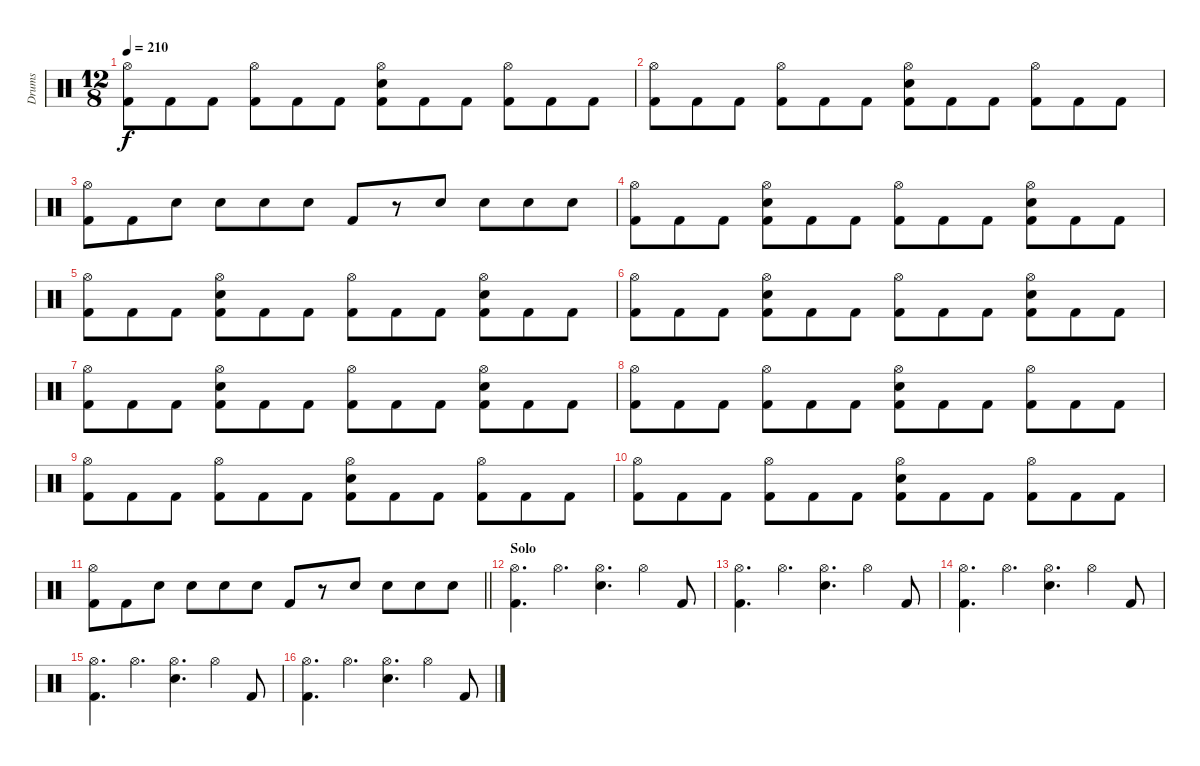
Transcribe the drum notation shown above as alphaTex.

\track ("Drums" "Drums") {instrument percussion}
\staff {score}
\articulation defaults
\ts (12 8)
\tempo 210
\clef neutral
\ks c
("Hi-Hat (open)" "Kick (hit) 2").8{dy f} "Kick (hit) 2".8 "Kick (hit) 2".8 ("Hi-Hat (open)" "Kick (hit) 2").8 "Kick (hit) 2".8 "Kick (hit) 2".8 ("Hi-Hat (open)" "Electric Snare (hit)" "Kick (hit) 2").8 "Kick (hit) 2".8 "Kick (hit) 2".8 ("Hi-Hat (open)" "Kick (hit) 2").8 "Kick (hit) 2".8 "Kick (hit) 2".8 |
("Hi-Hat (open)" "Kick (hit) 2").8 "Kick (hit) 2".8 "Kick (hit) 2".8 ("Hi-Hat (open)" "Kick (hit) 2").8 "Kick (hit) 2".8 "Kick (hit) 2".8 ("Hi-Hat (open)" "Electric Snare (hit)" "Kick (hit) 2").8 "Kick (hit) 2".8 "Kick (hit) 2".8 ("Hi-Hat (open)" "Kick (hit) 2").8 "Kick (hit) 2".8 "Kick (hit) 2".8 |
("Hi-Hat (open)" "Kick (hit) 2").8 "Kick (hit) 2".8 "Electric Snare (hit)".8 "Electric Snare (hit)".8 "Electric Snare (hit)".8 "Electric Snare (hit)".8 "Kick (hit) 2".8 r.8 "Electric Snare (hit)".8 "Electric Snare (hit)".8 "Electric Snare (hit)".8 "Electric Snare (hit)".8 |
("Hi-Hat (open)" "Kick (hit) 2").8 "Kick (hit) 2".8 "Kick (hit) 2".8 ("Hi-Hat (open)" "Electric Snare (hit)" "Kick (hit) 2").8 "Kick (hit) 2".8 "Kick (hit) 2".8 ("Hi-Hat (open)" "Kick (hit) 2").8 "Kick (hit) 2".8 "Kick (hit) 2".8 ("Hi-Hat (open)" "Electric Snare (hit)" "Kick (hit) 2").8 "Kick (hit) 2".8 "Kick (hit) 2".8 |
("Hi-Hat (open)" "Kick (hit) 2").8 "Kick (hit) 2".8 "Kick (hit) 2".8 ("Hi-Hat (open)" "Electric Snare (hit)" "Kick (hit) 2").8 "Kick (hit) 2".8 "Kick (hit) 2".8 ("Hi-Hat (open)" "Kick (hit) 2").8 "Kick (hit) 2".8 "Kick (hit) 2".8 ("Hi-Hat (open)" "Electric Snare (hit)" "Kick (hit) 2").8 "Kick (hit) 2".8 "Kick (hit) 2".8 |
("Hi-Hat (open)" "Kick (hit) 2").8 "Kick (hit) 2".8 "Kick (hit) 2".8 ("Hi-Hat (open)" "Electric Snare (hit)" "Kick (hit) 2").8 "Kick (hit) 2".8 "Kick (hit) 2".8 ("Hi-Hat (open)" "Kick (hit) 2").8 "Kick (hit) 2".8 "Kick (hit) 2".8 ("Hi-Hat (open)" "Electric Snare (hit)" "Kick (hit) 2").8 "Kick (hit) 2".8 "Kick (hit) 2".8 |
("Hi-Hat (open)" "Kick (hit) 2").8 "Kick (hit) 2".8 "Kick (hit) 2".8 ("Hi-Hat (open)" "Electric Snare (hit)" "Kick (hit) 2").8 "Kick (hit) 2".8 "Kick (hit) 2".8 ("Hi-Hat (open)" "Kick (hit) 2").8 "Kick (hit) 2".8 "Kick (hit) 2".8 ("Hi-Hat (open)" "Electric Snare (hit)" "Kick (hit) 2").8 "Kick (hit) 2".8 "Kick (hit) 2".8 |
("Hi-Hat (open)" "Kick (hit) 2").8 "Kick (hit) 2".8 "Kick (hit) 2".8 ("Hi-Hat (open)" "Kick (hit) 2").8 "Kick (hit) 2".8 "Kick (hit) 2".8 ("Hi-Hat (open)" "Electric Snare (hit)" "Kick (hit) 2").8 "Kick (hit) 2".8 "Kick (hit) 2".8 ("Hi-Hat (open)" "Kick (hit) 2").8 "Kick (hit) 2".8 "Kick (hit) 2".8 |
("Hi-Hat (open)" "Kick (hit) 2").8 "Kick (hit) 2".8 "Kick (hit) 2".8 ("Hi-Hat (open)" "Kick (hit) 2").8 "Kick (hit) 2".8 "Kick (hit) 2".8 ("Hi-Hat (open)" "Electric Snare (hit)" "Kick (hit) 2").8 "Kick (hit) 2".8 "Kick (hit) 2".8 ("Hi-Hat (open)" "Kick (hit) 2").8 "Kick (hit) 2".8 "Kick (hit) 2".8 |
("Hi-Hat (open)" "Kick (hit) 2").8 "Kick (hit) 2".8 "Kick (hit) 2".8 ("Hi-Hat (open)" "Kick (hit) 2").8 "Kick (hit) 2".8 "Kick (hit) 2".8 ("Hi-Hat (open)" "Electric Snare (hit)" "Kick (hit) 2").8 "Kick (hit) 2".8 "Kick (hit) 2".8 ("Hi-Hat (open)" "Kick (hit) 2").8 "Kick (hit) 2".8 "Kick (hit) 2".8 |
\barLineRight lightlight
("Hi-Hat (open)" "Kick (hit) 2").8 "Kick (hit) 2".8 "Electric Snare (hit)".8 "Electric Snare (hit)".8 "Electric Snare (hit)".8 "Electric Snare (hit)".8 "Kick (hit) 2".8 r.8 "Electric Snare (hit)".8 "Electric Snare (hit)".8 "Electric Snare (hit)".8 "Electric Snare (hit)".8 |
\section ("" "Solo")
("Hi-Hat (open)" "Kick (hit) 2").4{d} "Hi-Hat (open)".4{d} ("Hi-Hat (open)" "Electric Snare (hit)").4{d} "Hi-Hat (open)".4 "Kick (hit) 2".8 |
("Hi-Hat (open)" "Kick (hit) 2").4{d} "Hi-Hat (open)".4{d} ("Hi-Hat (open)" "Electric Snare (hit)").4{d} "Hi-Hat (open)".4 "Kick (hit) 2".8 |
("Hi-Hat (open)" "Kick (hit) 2").4{d} "Hi-Hat (open)".4{d} ("Hi-Hat (open)" "Electric Snare (hit)").4{d} "Hi-Hat (open)".4 "Kick (hit) 2".8 |
("Hi-Hat (open)" "Kick (hit) 2").4{d} "Hi-Hat (open)".4{d} ("Hi-Hat (open)" "Electric Snare (hit)").4{d} "Hi-Hat (open)".4 "Kick (hit) 2".8 |
("Hi-Hat (open)" "Kick (hit) 2").4{d} "Hi-Hat (open)".4{d} ("Hi-Hat (open)" "Electric Snare (hit)").4{d} "Hi-Hat (open)".4 "Kick (hit) 2".8
